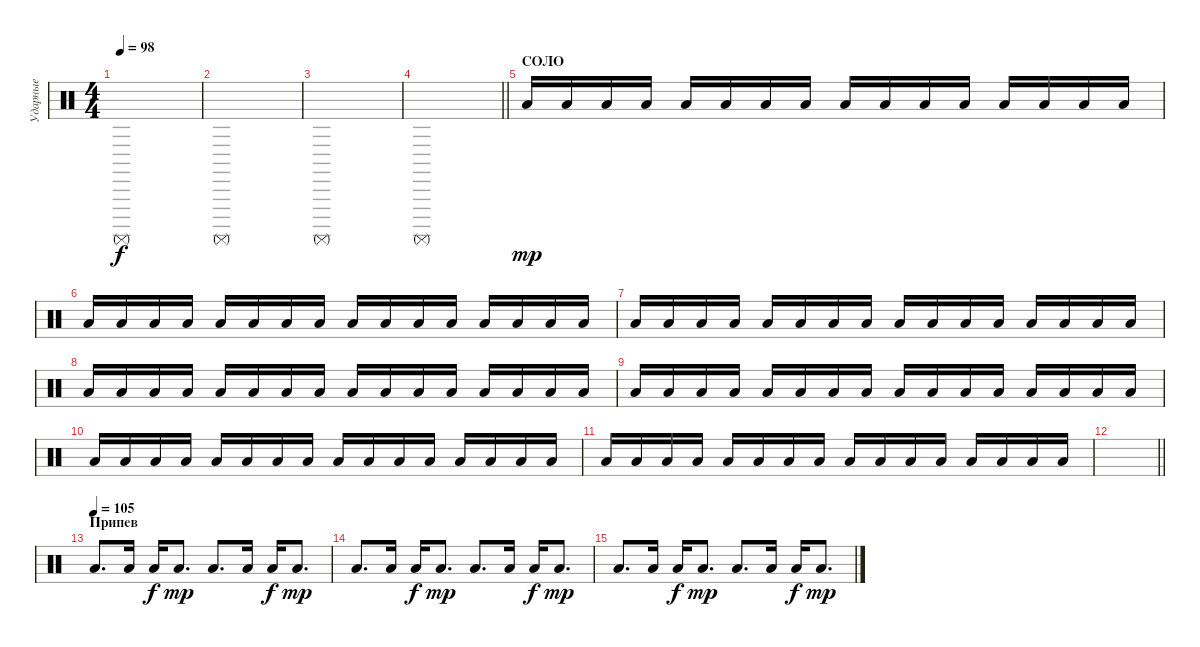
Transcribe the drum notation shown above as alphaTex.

\track ("Ударные" "Ударные") {instrument percussion}
\staff {score}
\articulation defaults
\ts (4 4)
\tempo 98
\clef neutral
\ks c "Surdo (mute)".1{dy f}
|
"Surdo (mute)".1 |
"Surdo (mute)".1 |
\barLineRight lightlight "Surdo (mute)".1
|
\section ("" "СОЛО")
"Low Tom (hit)".16{dy mp} "Low Tom (hit)".16 "Low Tom (hit)".16 "Low Tom (hit)".16 "Low Tom (hit)".16 "Low Tom (hit)".16 "Low Tom (hit)".16 "Low Tom (hit)".16 "Low Tom (hit)".16 "Low Tom (hit)".16 "Low Tom (hit)".16 "Low Tom (hit)".16 "Low Tom (hit)".16 "Low Tom (hit)".16 "Low Tom (hit)".16 "Low Tom (hit)".16 |
"Low Tom (hit)".16 "Low Tom (hit)".16 "Low Tom (hit)".16 "Low Tom (hit)".16 "Low Tom (hit)".16 "Low Tom (hit)".16 "Low Tom (hit)".16 "Low Tom (hit)".16 "Low Tom (hit)".16 "Low Tom (hit)".16 "Low Tom (hit)".16 "Low Tom (hit)".16 "Low Tom (hit)".16 "Low Tom (hit)".16 "Low Tom (hit)".16 "Low Tom (hit)".16 |
"Low Tom (hit)".16 "Low Tom (hit)".16 "Low Tom (hit)".16 "Low Tom (hit)".16 "Low Tom (hit)".16 "Low Tom (hit)".16 "Low Tom (hit)".16 "Low Tom (hit)".16 "Low Tom (hit)".16 "Low Tom (hit)".16 "Low Tom (hit)".16 "Low Tom (hit)".16 "Low Tom (hit)".16 "Low Tom (hit)".16 "Low Tom (hit)".16 "Low Tom (hit)".16 |
"Low Tom (hit)".16 "Low Tom (hit)".16 "Low Tom (hit)".16 "Low Tom (hit)".16 "Low Tom (hit)".16 "Low Tom (hit)".16 "Low Tom (hit)".16 "Low Tom (hit)".16 "Low Tom (hit)".16 "Low Tom (hit)".16 "Low Tom (hit)".16 "Low Tom (hit)".16 "Low Tom (hit)".16 "Low Tom (hit)".16 "Low Tom (hit)".16 "Low Tom (hit)".16 |
"Low Tom (hit)".16 "Low Tom (hit)".16 "Low Tom (hit)".16 "Low Tom (hit)".16 "Low Tom (hit)".16 "Low Tom (hit)".16 "Low Tom (hit)".16 "Low Tom (hit)".16 "Low Tom (hit)".16 "Low Tom (hit)".16 "Low Tom (hit)".16 "Low Tom (hit)".16 "Low Tom (hit)".16 "Low Tom (hit)".16 "Low Tom (hit)".16 "Low Tom (hit)".16 |
"Low Tom (hit)".16 "Low Tom (hit)".16 "Low Tom (hit)".16 "Low Tom (hit)".16 "Low Tom (hit)".16 "Low Tom (hit)".16 "Low Tom (hit)".16 "Low Tom (hit)".16 "Low Tom (hit)".16 "Low Tom (hit)".16 "Low Tom (hit)".16 "Low Tom (hit)".16 "Low Tom (hit)".16 "Low Tom (hit)".16 "Low Tom (hit)".16 "Low Tom (hit)".16 |
"Low Tom (hit)".16 "Low Tom (hit)".16 "Low Tom (hit)".16 "Low Tom (hit)".16 "Low Tom (hit)".16 "Low Tom (hit)".16 "Low Tom (hit)".16 "Low Tom (hit)".16 "Low Tom (hit)".16 "Low Tom (hit)".16 "Low Tom (hit)".16 "Low Tom (hit)".16 "Low Tom (hit)".16 "Low Tom (hit)".16 "Low Tom (hit)".16 "Low Tom (hit)".16 |
\barLineRight lightlight
|
\section ("" "Припев")
\tempo (105)
"Low Tom (hit)".8{d} "Low Tom (hit)".16 "Low Tom (hit)".16{dy f} "Low Tom (hit)".8{d dy mp} "Low Tom (hit)".8{d} "Low Tom (hit)".16 "Low Tom (hit)".16{dy f} "Low Tom (hit)".8{d dy mp} |
"Low Tom (hit)".8{d} "Low Tom (hit)".16 "Low Tom (hit)".16{dy f} "Low Tom (hit)".8{d dy mp} "Low Tom (hit)".8{d} "Low Tom (hit)".16 "Low Tom (hit)".16{dy f} "Low Tom (hit)".8{d dy mp} |
"Low Tom (hit)".8{d} "Low Tom (hit)".16 "Low Tom (hit)".16{dy f} "Low Tom (hit)".8{d dy mp} "Low Tom (hit)".8{d} "Low Tom (hit)".16 "Low Tom (hit)".16{dy f} "Low Tom (hit)".8{d dy mp}
